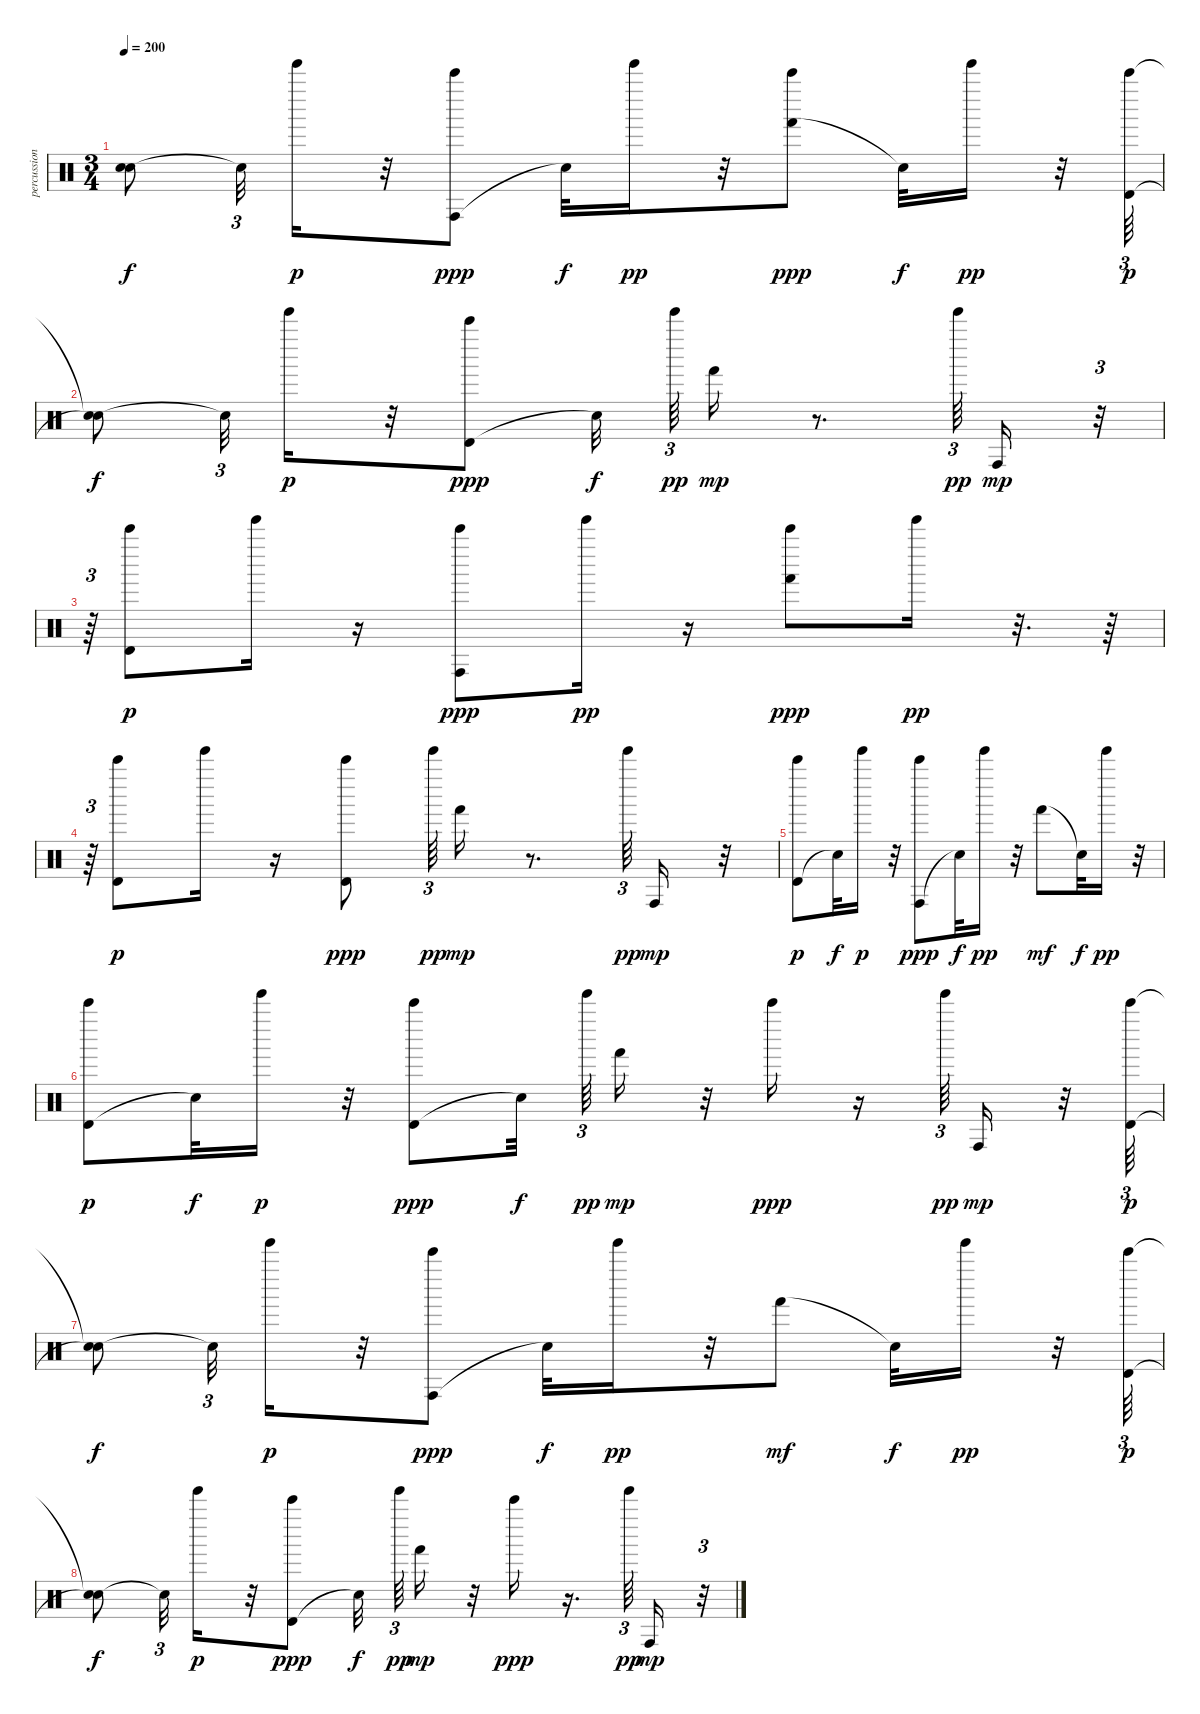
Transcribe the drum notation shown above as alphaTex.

\track ("percussion" "percussion") {instrument percussion}
\staff {score}
\articulation defaults
\ts (3 4)
\tempo 200
\clef neutral
\ks c
("Snare (hit)"{t} "Snare (hit)"{t}).8{dy f} "Snare (hit)"{t}.32{tu (3 2)} "Tinkle Bell (hit)".16{dy p} r.32 ("Conga high (hit)" "Bell Tree (hit)").8{dy ppp} "Snare (hit)"{t}.32{dy f} "Tinkle Bell (hit)".16{dy pp} r.32 ("Hand (hit)" "Bell Tree (hit)").8{dy ppp} "Snare (hit)"{t}.32{dy f} "Tinkle Bell (hit)".16{dy pp} r.32 ("Timbale high (hit)" "Bell Tree (hit)").64{tu (3 2) dy p} |
("Snare (hit)"{t} "Snare (hit)"{t}).8{dy f} "Snare (hit)"{t}.32{tu (3 2)} "Tinkle Bell (hit)".16{dy p} r.32 ("Timbale high (hit)" "Bell Tree (hit)").8{dy ppp} "Snare (hit)"{t}.32{dy f} "Tinkle Bell (hit)".64{tu (3 2) dy pp} "Hand (hit)".16{dy mp} r.8{d} "Tinkle Bell (hit)".64{tu (3 2) dy pp} "Conga high (hit)".16{dy mp} r.32{tu (3 2)} |
r.64{tu (3 2)} ("Timbale high (hit)" "Bell Tree (hit)").8{dy p} "Tinkle Bell (hit)".16 r.16 ("Conga high (hit)" "Bell Tree (hit)").8{dy ppp} "Tinkle Bell (hit)".16{dy pp} r.16 ("Hand (hit)" "Bell Tree (hit)").8{dy ppp} "Tinkle Bell (hit)".16{dy pp} r.32{d} r.64 |
r.64{tu (3 2)} ("Timbale high (hit)" "Bell Tree (hit)").8{dy p} "Tinkle Bell (hit)".16 r.16 ("Timbale high (hit)" "Bell Tree (hit)").8{dy ppp} "Tinkle Bell (hit)".64{tu (3 2) dy pp} "Hand (hit)".16{dy mp} r.8{d} "Tinkle Bell (hit)".64{tu (3 2) dy pp} "Conga high (hit)".16{dy mp} r.32 |
("Timbale high (hit)" "Bell Tree (hit)").8{dy p} "Snare (hit)"{t}.32{dy f} "Tinkle Bell (hit)".16{dy p} r.32 ("Conga high (hit)" "Bell Tree (hit)").8{dy ppp} "Snare (hit)"{t}.32{dy f} "Tinkle Bell (hit)".16{dy pp} r.32 "Hand (hit)".8{dy mf} "Snare (hit)"{t}.32{dy f} "Tinkle Bell (hit)".16{dy pp} r.32 |
("Timbale high (hit)" "Bell Tree (hit)").8{dy p} "Snare (hit)"{t}.32{dy f} "Tinkle Bell (hit)".16{dy p} r.32 ("Timbale high (hit)" "Bell Tree (hit)").8{dy ppp} "Snare (hit)"{t}.32{dy f} "Tinkle Bell (hit)".64{tu (3 2) dy pp} "Hand (hit)".16{dy mp} r.32 "Bell Tree (hit)".16{dy ppp} r.16 "Tinkle Bell (hit)".64{tu (3 2) dy pp} "Conga high (hit)".16{dy mp} r.32 ("Timbale high (hit)" "Bell Tree (hit)").64{tu (3 2) dy p} |
("Snare (hit)"{t} "Snare (hit)"{t}).8{dy f} "Snare (hit)"{t}.32{tu (3 2)} "Tinkle Bell (hit)".16{dy p} r.32 ("Conga high (hit)" "Bell Tree (hit)").8{dy ppp} "Snare (hit)"{t}.32{dy f} "Tinkle Bell (hit)".16{dy pp} r.32 "Hand (hit)".8{dy mf} "Snare (hit)"{t}.32{dy f} "Tinkle Bell (hit)".16{dy pp} r.32 ("Timbale high (hit)" "Bell Tree (hit)").64{tu (3 2) dy p} |
("Snare (hit)"{t} "Snare (hit)"{t}).8{dy f} "Snare (hit)"{t}.32{tu (3 2)} "Tinkle Bell (hit)".16{dy p} r.32 ("Timbale high (hit)" "Bell Tree (hit)").8{dy ppp} "Snare (hit)"{t}.32{dy f} "Tinkle Bell (hit)".64{tu (3 2) dy pp} "Hand (hit)".16{dy mp} r.32 "Bell Tree (hit)".16{dy ppp} r.16{d} "Tinkle Bell (hit)".64{tu (3 2) dy pp} "Conga high (hit)".16{dy mp} r.32{tu (3 2)}
